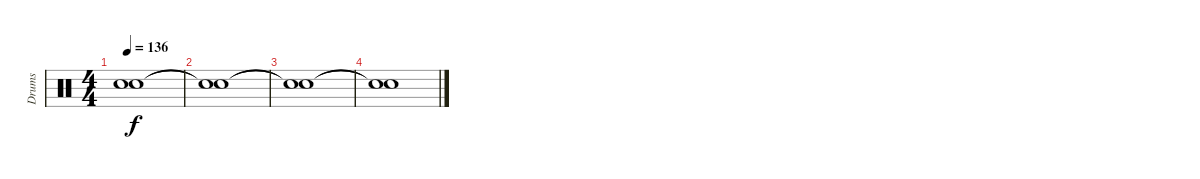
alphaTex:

\track ("Drums" "Drums") {instrument percussion}
\staff {score}
\articulation defaults
\ts (4 4)
\tempo 136
\clef neutral
\ks c
("Snare (hit)"{t} "Snare (hit)"{t}).1{dy f} |
("Snare (hit)"{t} "Snare (hit)"{t}).1 |
("Snare (hit)"{t} "Snare (hit)"{t}).1 |
("Snare (hit)"{t} "Snare (hit)"{t}).1
